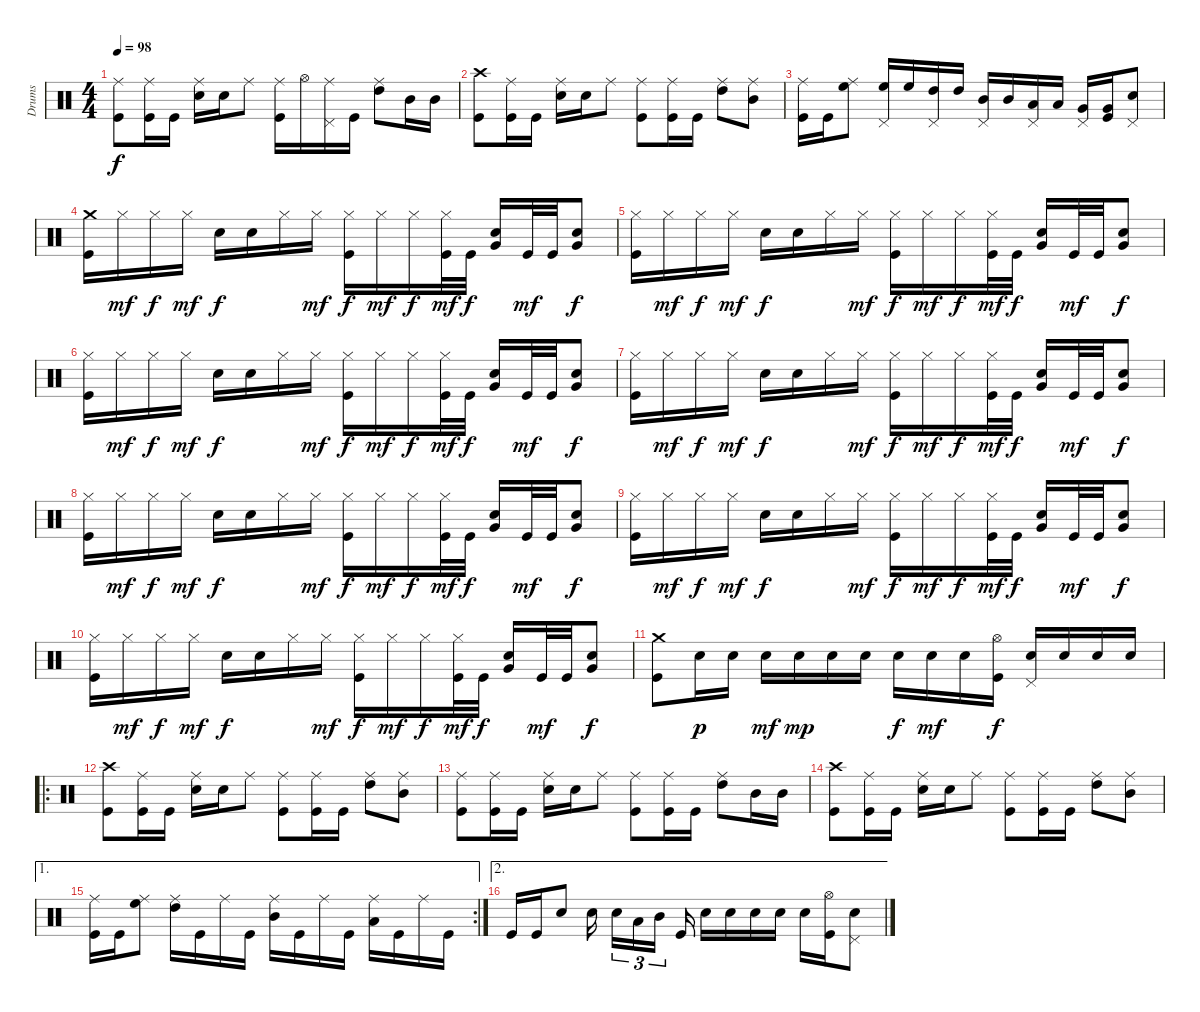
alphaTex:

\track ("Drums" "Drums") {instrument percussion}
\staff {score}
\articulation defaults
\ts (4 4)
\tempo 98
\clef neutral
\ks c
("Ride (middle)" "Kick (hit)").8{dy f} ("Ride (middle)" "Kick (hit)").16 "Kick (hit)".16 ("Ride (middle)" "Electric Snare (hit)").16 "Electric Snare (hit)".16 "Ride (middle)".8 ("Ride (middle)" "Kick (hit)").16 "Hi-Hat (open)".16 ("Ride (middle)" "Pedal Hi-Hat (hit)").16 "Kick (hit)".16 ("Ride (middle)" "High Tom (hit)").8 "Mid Tom (hit)".16 "Mid Tom (hit)".16 |
("Crash high (hit)" "Kick (hit)").8 ("Ride (middle)" "Kick (hit)").16 "Kick (hit)".16 ("Ride (middle)" "Electric Snare (hit)").16 "Electric Snare (hit)".16 "Ride (middle)".8 ("Ride (middle)" "Kick (hit)").8 ("Ride (middle)" "Kick (hit)").16 "Kick (hit)".16 ("Ride (middle)" "High Tom (hit)").8 ("Ride (middle)" "Mid Tom (hit)").8 |
("Ride (middle)" "Kick (hit)").16 "Kick (hit)".16 ("Ride (middle)" "High Floor Tom (hit)").8 ("High Floor Tom (hit)" "Pedal Hi-Hat (hit)").16 "High Floor Tom (hit)".16 ("High Tom (hit)" "Pedal Hi-Hat (hit)").16 "High Tom (hit)".16 ("Mid Tom (hit)" "Pedal Hi-Hat (hit)").16 "Mid Tom (hit)".16 ("Low Tom (hit)" "Pedal Hi-Hat (hit)").16 "Low Tom (hit)".16 ("Very Low Tom (hit)" "Pedal Hi-Hat (hit)").16 ("Very Low Tom (hit)" "Kick (hit)").16 ("Electric Snare (hit)" "Pedal Hi-Hat (hit)").8 |
("Crash medium (hit)" "Kick (hit)").16 "Hi-Hat (closed)".16{dy mf} "Hi-Hat (closed)".16{dy f} "Hi-Hat (closed)".16{dy mf} "Electric Snare (hit)".16{dy f} "Electric Snare (hit)".16 "Hi-Hat (closed)".16 "Hi-Hat (closed)".16{dy mf} ("Hi-Hat (closed)" "Kick (hit)").16{dy f} "Hi-Hat (closed)".16{dy mf} "Hi-Hat (closed)".16{dy f} ("Hi-Hat (closed)" "Kick (hit)").32{dy mf} "Kick (hit)".32{dy f} ("Electric Snare (hit)" "Very Low Tom (hit)").16 "Kick (hit)".32{dy mf} "Kick (hit)".32 ("Electric Snare (hit)" "Very Low Tom (hit)").8{dy f} |
("Hi-Hat (closed)" "Kick (hit)").16 "Hi-Hat (closed)".16{dy mf} "Hi-Hat (closed)".16{dy f} "Hi-Hat (closed)".16{dy mf} "Electric Snare (hit)".16{dy f} "Electric Snare (hit)".16 "Hi-Hat (closed)".16 "Hi-Hat (closed)".16{dy mf} ("Hi-Hat (closed)" "Kick (hit)").16{dy f} "Hi-Hat (closed)".16{dy mf} "Hi-Hat (closed)".16{dy f} ("Hi-Hat (closed)" "Kick (hit)").32{dy mf} "Kick (hit)".32{dy f} ("Electric Snare (hit)" "Very Low Tom (hit)").16 "Kick (hit)".32{dy mf} "Kick (hit)".32 ("Electric Snare (hit)" "Very Low Tom (hit)").8{dy f} |
("Hi-Hat (closed)" "Kick (hit)").16 "Hi-Hat (closed)".16{dy mf} "Hi-Hat (closed)".16{dy f} "Hi-Hat (closed)".16{dy mf} "Electric Snare (hit)".16{dy f} "Electric Snare (hit)".16 "Hi-Hat (closed)".16 "Hi-Hat (closed)".16{dy mf} ("Hi-Hat (closed)" "Kick (hit)").16{dy f} "Hi-Hat (closed)".16{dy mf} "Hi-Hat (closed)".16{dy f} ("Hi-Hat (closed)" "Kick (hit)").32{dy mf} "Kick (hit)".32{dy f} ("Electric Snare (hit)" "Very Low Tom (hit)").16 "Kick (hit)".32{dy mf} "Kick (hit)".32 ("Electric Snare (hit)" "Very Low Tom (hit)").8{dy f} |
("Hi-Hat (closed)" "Kick (hit)").16 "Hi-Hat (closed)".16{dy mf} "Hi-Hat (closed)".16{dy f} "Hi-Hat (closed)".16{dy mf} "Electric Snare (hit)".16{dy f} "Electric Snare (hit)".16 "Hi-Hat (closed)".16 "Hi-Hat (closed)".16{dy mf} ("Hi-Hat (closed)" "Kick (hit)").16{dy f} "Hi-Hat (closed)".16{dy mf} "Hi-Hat (closed)".16{dy f} ("Hi-Hat (closed)" "Kick (hit)").32{dy mf} "Kick (hit)".32{dy f} ("Electric Snare (hit)" "Very Low Tom (hit)").16 "Kick (hit)".32{dy mf} "Kick (hit)".32 ("Electric Snare (hit)" "Very Low Tom (hit)").8{dy f} |
("Hi-Hat (closed)" "Kick (hit)").16 "Hi-Hat (closed)".16{dy mf} "Hi-Hat (closed)".16{dy f} "Hi-Hat (closed)".16{dy mf} "Electric Snare (hit)".16{dy f} "Electric Snare (hit)".16 "Hi-Hat (closed)".16 "Hi-Hat (closed)".16{dy mf} ("Hi-Hat (closed)" "Kick (hit)").16{dy f} "Hi-Hat (closed)".16{dy mf} "Hi-Hat (closed)".16{dy f} ("Hi-Hat (closed)" "Kick (hit)").32{dy mf} "Kick (hit)".32{dy f} ("Electric Snare (hit)" "Very Low Tom (hit)").16 "Kick (hit)".32{dy mf} "Kick (hit)".32 ("Electric Snare (hit)" "Very Low Tom (hit)").8{dy f} |
("Hi-Hat (closed)" "Kick (hit)").16 "Hi-Hat (closed)".16{dy mf} "Hi-Hat (closed)".16{dy f} "Hi-Hat (closed)".16{dy mf} "Electric Snare (hit)".16{dy f} "Electric Snare (hit)".16 "Hi-Hat (closed)".16 "Hi-Hat (closed)".16{dy mf} ("Hi-Hat (closed)" "Kick (hit)").16{dy f} "Hi-Hat (closed)".16{dy mf} "Hi-Hat (closed)".16{dy f} ("Hi-Hat (closed)" "Kick (hit)").32{dy mf} "Kick (hit)".32{dy f} ("Electric Snare (hit)" "Very Low Tom (hit)").16 "Kick (hit)".32{dy mf} "Kick (hit)".32 ("Electric Snare (hit)" "Very Low Tom (hit)").8{dy f} |
("Hi-Hat (closed)" "Kick (hit)").16 "Hi-Hat (closed)".16{dy mf} "Hi-Hat (closed)".16{dy f} "Hi-Hat (closed)".16{dy mf} "Electric Snare (hit)".16{dy f} "Electric Snare (hit)".16 "Hi-Hat (closed)".16 "Hi-Hat (closed)".16{dy mf} ("Hi-Hat (closed)" "Kick (hit)").16{dy f} "Hi-Hat (closed)".16{dy mf} "Hi-Hat (closed)".16{dy f} ("Hi-Hat (closed)" "Kick (hit)").32{dy mf} "Kick (hit)".32{dy f} ("Electric Snare (hit)" "Very Low Tom (hit)").16 "Kick (hit)".32{dy mf} "Kick (hit)".32 ("Electric Snare (hit)" "Very Low Tom (hit)").8{dy f} |
("Crash medium (hit)" "Kick (hit)").8 "Electric Snare (hit)".16{dy p} "Electric Snare (hit)".16 "Electric Snare (hit)".16{dy mf} "Electric Snare (hit)".16{dy mp} "Electric Snare (hit)".16 "Electric Snare (hit)".16 "Electric Snare (hit)".16{dy f} "Electric Snare (hit)".16{dy mf} "Electric Snare (hit)".16 ("Hi-Hat (open)" "Kick (hit)").16{dy f} ("Electric Snare (hit)" "Pedal Hi-Hat (hit)").16 "Electric Snare (hit)".16 "Electric Snare (hit)".16 "Electric Snare (hit)".16 |
\ro
("Crash high (hit)" "Kick (hit)").8 ("Ride (middle)" "Kick (hit)").16 "Kick (hit)".16 ("Ride (middle)" "Electric Snare (hit)").16 "Electric Snare (hit)".16 "Ride (middle)".8 ("Ride (middle)" "Kick (hit)").8 ("Ride (middle)" "Kick (hit)").16 "Kick (hit)".16 ("Ride (middle)" "High Tom (hit)").8 ("Ride (middle)" "Mid Tom (hit)").8 |
("Ride (middle)" "Kick (hit)").8 ("Ride (middle)" "Kick (hit)").16 "Kick (hit)".16 ("Ride (middle)" "Electric Snare (hit)").16 "Electric Snare (hit)".16 "Ride (middle)".8 ("Ride (middle)" "Kick (hit)").8 ("Ride (middle)" "Kick (hit)").16 "Kick (hit)".16 ("Ride (middle)" "High Tom (hit)").8 "Mid Tom (hit)".16 "Mid Tom (hit)".16 |
("Crash high (hit)" "Kick (hit)").8 ("Ride (middle)" "Kick (hit)").16 "Kick (hit)".16 ("Ride (middle)" "Electric Snare (hit)").16 "Electric Snare (hit)".16 "Ride (middle)".8 ("Ride (middle)" "Kick (hit)").8 ("Ride (middle)" "Kick (hit)").16 "Kick (hit)".16 ("Ride (middle)" "High Tom (hit)").8 ("Ride (middle)" "Mid Tom (hit)").8 |
\ae 1
\rc 2
("Ride (middle)" "Kick (hit)").16 "Kick (hit)".16 ("Ride (middle)" "High Floor Tom (hit)").8 ("Ride (middle)" "High Tom (hit)").16 "Kick (hit)".16 "Ride (middle)".16 "Kick (hit)".16 ("Ride (middle)" "Mid Tom (hit)").16 "Kick (hit)".16 "Ride (middle)".16 "Kick (hit)".16 ("Ride (middle)" "Low Tom (hit)").16 "Kick (hit)".16 "Ride (middle)".16 "Kick (hit)".16 |
\ae 2 "Kick (hit)".16 "Kick (hit)".16 "Electric Snare (hit)".8 "Electric Snare (hit)".16 "Electric Snare (hit)".16{tu (3 2)} "Low Tom (hit)".16{tu (3 2)} "Mid Tom (hit)".16{tu (3 2)} "Kick (hit)".16 "Electric Snare (hit)".16 "Electric Snare (hit)".16 "Electric Snare (hit)".16 "Electric Snare (hit)".16 "Electric Snare (hit)".16
("Hi-Hat (open)" "Kick (hit)").16 ("Electric Snare (hit)" "Pedal Hi-Hat (hit)").8
